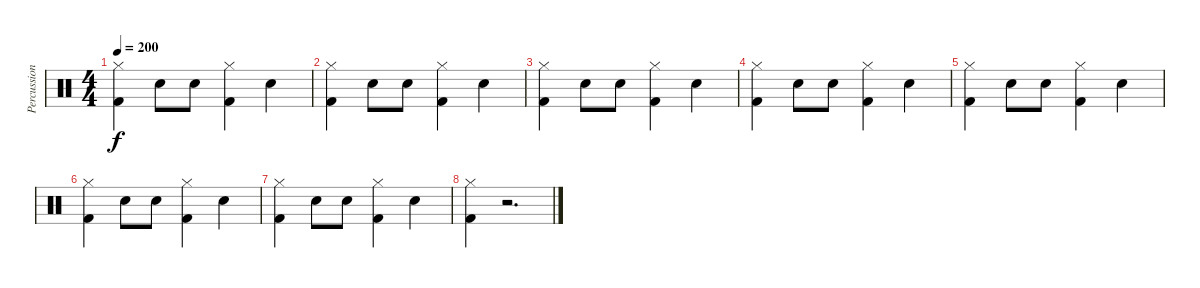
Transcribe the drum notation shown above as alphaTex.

\track ("Percussions" "Percussion") {instrument percussion}
\staff {score}
\articulation defaults
\ts (4 4)
\tempo 200
\clef neutral
\ks c
("Kick (hit) 2" "Hi-Hat (closed)").4{dy f} "Electric Snare (hit)".8 "Electric Snare (hit)".8 ("Kick (hit) 2" "Hi-Hat (closed)").4 "Electric Snare (hit)".4 |
("Kick (hit) 2" "Hi-Hat (closed)").4 "Electric Snare (hit)".8 "Electric Snare (hit)".8 ("Kick (hit) 2" "Hi-Hat (closed)").4 "Electric Snare (hit)".4 |
("Kick (hit) 2" "Hi-Hat (closed)").4 "Electric Snare (hit)".8 "Electric Snare (hit)".8 ("Kick (hit) 2" "Hi-Hat (closed)").4 "Electric Snare (hit)".4 |
("Kick (hit) 2" "Hi-Hat (closed)").4 "Electric Snare (hit)".8 "Electric Snare (hit)".8 ("Kick (hit) 2" "Hi-Hat (closed)").4 "Electric Snare (hit)".4 |
("Kick (hit) 2" "Hi-Hat (closed)").4 "Electric Snare (hit)".8 "Electric Snare (hit)".8 ("Kick (hit) 2" "Hi-Hat (closed)").4 "Electric Snare (hit)".4 |
("Kick (hit) 2" "Hi-Hat (closed)").4 "Electric Snare (hit)".8 "Electric Snare (hit)".8 ("Kick (hit) 2" "Hi-Hat (closed)").4 "Electric Snare (hit)".4 |
("Kick (hit) 2" "Hi-Hat (closed)").4 "Electric Snare (hit)".8 "Electric Snare (hit)".8 ("Kick (hit) 2" "Hi-Hat (closed)").4 "Electric Snare (hit)".4 |
("Kick (hit) 2" "Hi-Hat (closed)").4 r.2{d}
